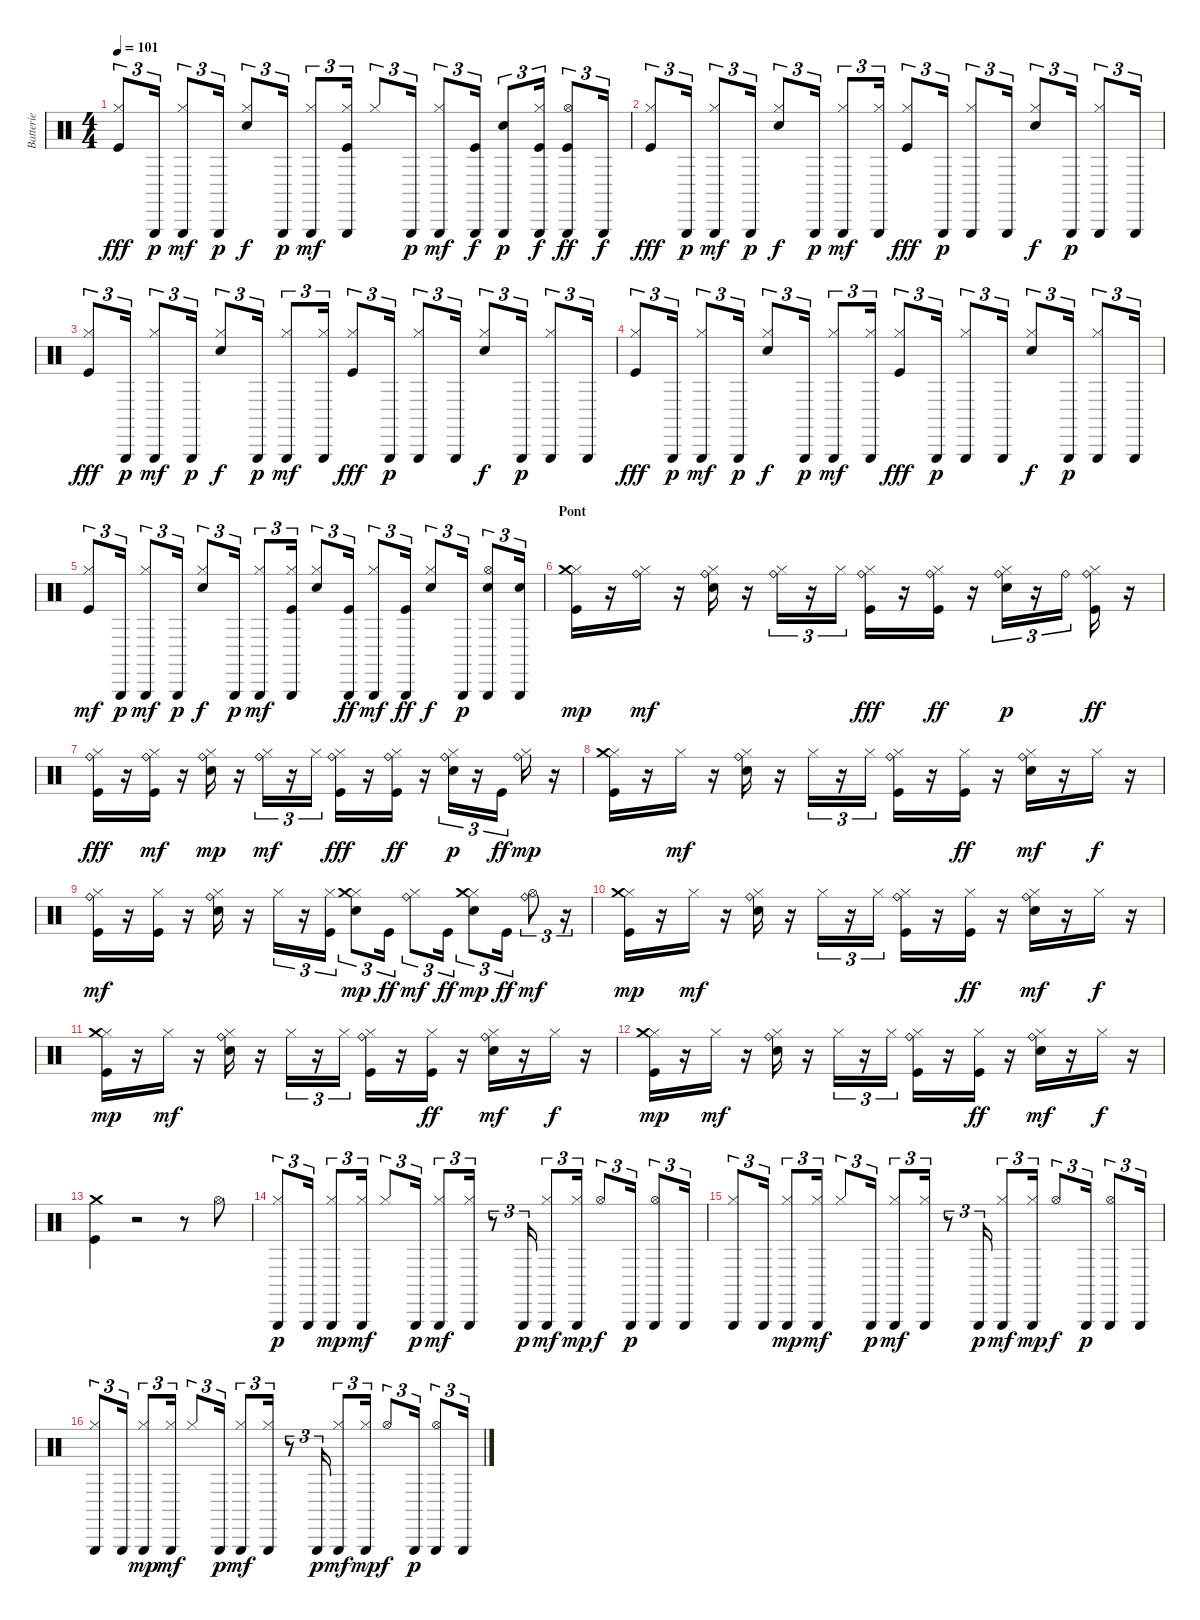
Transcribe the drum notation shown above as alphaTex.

\track ("Batterie" "Batterie") {instrument percussion}
\staff {score}
\articulation defaults
\ts (4 4)
\tempo 101
\clef neutral
\ks c
("Kick (hit)" "Hi-Hat (closed)").8{tu (3 2) dy fff} "Triangle (hit)".16{tu (3 2) dy p} ("Triangle (hit)" "Hi-Hat (closed)").8{tu (3 2) dy mf} "Triangle (hit)".16{tu (3 2) dy p} ("Electric Snare (hit)" "Hi-Hat (closed)").8{tu (3 2) dy f} "Triangle (hit)".16{tu (3 2) dy p} ("Triangle (hit)" "Hi-Hat (closed)").8{tu (3 2) dy mf} ("Triangle (hit)" "Kick (hit)" "Hi-Hat (closed)").16{tu (3 2)} "Hi-Hat (closed)".8{tu (3 2)} "Triangle (hit)".16{tu (3 2) dy p} ("Triangle (hit)" "Hi-Hat (closed)").8{tu (3 2) dy mf} ("Triangle (hit)" "Kick (hit)").16{tu (3 2) dy f} ("Triangle (hit)" "Electric Snare (hit)").8{tu (3 2) dy p} ("Triangle (hit)" "Hi-Hat (closed)" "Kick (hit)").16{tu (3 2) dy f} ("Triangle (hit)" "Kick (hit)" "Hi-Hat (open)").8{tu (3 2) dy ff} "Triangle (hit)".16{tu (3 2) dy f} |
("Kick (hit)" "Hi-Hat (closed)").8{tu (3 2) dy fff} "Triangle (hit)".16{tu (3 2) dy p} ("Triangle (hit)" "Hi-Hat (closed)").8{tu (3 2) dy mf} "Triangle (hit)".16{tu (3 2) dy p} ("Electric Snare (hit)" "Hi-Hat (closed)").8{tu (3 2) dy f} "Triangle (hit)".16{tu (3 2) dy p} ("Triangle (hit)" "Hi-Hat (closed)").8{tu (3 2) dy mf} ("Triangle (hit)" "Hi-Hat (closed)").16{tu (3 2)} ("Kick (hit)" "Hi-Hat (closed)").8{tu (3 2) dy fff} "Triangle (hit)".16{tu (3 2) dy p} ("Triangle (hit)" "Hi-Hat (closed)").8{tu (3 2)} "Triangle (hit)".16{tu (3 2)} ("Electric Snare (hit)" "Hi-Hat (closed)").8{tu (3 2) dy f} "Triangle (hit)".16{tu (3 2) dy p} ("Triangle (hit)" "Hi-Hat (closed)").8{tu (3 2)} "Triangle (hit)".16{tu (3 2)} |
("Kick (hit)" "Hi-Hat (closed)").8{tu (3 2) dy fff} "Triangle (hit)".16{tu (3 2) dy p} ("Triangle (hit)" "Hi-Hat (closed)").8{tu (3 2) dy mf} "Triangle (hit)".16{tu (3 2) dy p} ("Electric Snare (hit)" "Hi-Hat (closed)").8{tu (3 2) dy f} "Triangle (hit)".16{tu (3 2) dy p} ("Triangle (hit)" "Hi-Hat (closed)").8{tu (3 2) dy mf} ("Triangle (hit)" "Hi-Hat (closed)").16{tu (3 2)} ("Kick (hit)" "Hi-Hat (closed)").8{tu (3 2) dy fff} "Triangle (hit)".16{tu (3 2) dy p} ("Triangle (hit)" "Hi-Hat (closed)").8{tu (3 2)} "Triangle (hit)".16{tu (3 2)} ("Electric Snare (hit)" "Hi-Hat (closed)").8{tu (3 2) dy f} "Triangle (hit)".16{tu (3 2) dy p} ("Triangle (hit)" "Hi-Hat (closed)").8{tu (3 2)} "Triangle (hit)".16{tu (3 2)} |
("Kick (hit)" "Hi-Hat (closed)").8{tu (3 2) dy fff} "Triangle (hit)".16{tu (3 2) dy p} ("Triangle (hit)" "Hi-Hat (closed)").8{tu (3 2) dy mf} "Triangle (hit)".16{tu (3 2) dy p} ("Electric Snare (hit)" "Hi-Hat (closed)").8{tu (3 2) dy f} "Triangle (hit)".16{tu (3 2) dy p} ("Triangle (hit)" "Hi-Hat (closed)").8{tu (3 2) dy mf} ("Triangle (hit)" "Hi-Hat (closed)").16{tu (3 2)} ("Kick (hit)" "Hi-Hat (closed)").8{tu (3 2) dy fff} "Triangle (hit)".16{tu (3 2) dy p} ("Triangle (hit)" "Hi-Hat (closed)").8{tu (3 2)} "Triangle (hit)".16{tu (3 2)} ("Electric Snare (hit)" "Hi-Hat (closed)").8{tu (3 2) dy f} "Triangle (hit)".16{tu (3 2) dy p} ("Triangle (hit)" "Hi-Hat (closed)").8{tu (3 2)} "Triangle (hit)".16{tu (3 2)} |
("Kick (hit)" "Hi-Hat (closed)").8{tu (3 2) dy mf} "Triangle (hit)".16{tu (3 2) dy p} ("Triangle (hit)" "Hi-Hat (closed)").8{tu (3 2) dy mf} "Triangle (hit)".16{tu (3 2) dy p} ("Electric Snare (hit)" "Hi-Hat (closed)").8{tu (3 2) dy f} "Triangle (hit)".16{tu (3 2) dy p} ("Triangle (hit)" "Hi-Hat (closed)").8{tu (3 2) dy mf} ("Triangle (hit)" "Kick (hit)" "Hi-Hat (closed)").16{tu (3 2)} ("Electric Snare (hit)" "Hi-Hat (closed)").8{tu (3 2)} ("Triangle (hit)" "Kick (hit)").16{tu (3 2) dy ff} ("Triangle (hit)" "Hi-Hat (closed)").8{tu (3 2) dy mf} ("Triangle (hit)" "Kick (hit)").16{tu (3 2) dy ff} ("Electric Snare (hit)" "Hi-Hat (closed)").8{tu (3 2) dy f} "Triangle (hit)".16{tu (3 2) dy p} ("Electric Snare (hit)" "Hi-Hat (open)" "Triangle (hit)").8{tu (3 2)} ("Electric Snare (hit)" "Triangle (hit)").16{tu (3 2)} |
\section ("" "Pont")
("Kick (hit)" "Hi-Hat (closed)" "Crash medium (hit)").16{dy mp} r.16 ("Ride (bell)" "Hi-Hat (closed)").16{dy mf} r.16 ("Electric Snare (hit)" "Ride (bell)" "Hi-Hat (closed)").16 r.16 ("Ride (bell)" "Hi-Hat (closed)").16{tu (3 2)} r.16{tu (3 2)} "Hi-Hat (closed)".16{tu (3 2)} ("Ride (bell)" "Kick (hit)" "Hi-Hat (closed)").16{dy fff} r.16 ("Ride (bell)" "Kick (hit)" "Hi-Hat (closed)").16{dy ff} r.16 ("Electric Snare (hit)" "Ride (bell)" "Hi-Hat (closed)").16{tu (3 2) dy p} r.16{tu (3 2)} "Ride (bell)".16{tu (3 2)} ("Ride (bell)" "Kick (hit)" "Hi-Hat (closed)").16{dy ff} r.16 |
("Ride (bell)" "Kick (hit)" "Hi-Hat (closed)").16{dy fff} r.16 ("Ride (bell)" "Kick (hit)" "Hi-Hat (closed)").16{dy mf} r.16 ("Electric Snare (hit)" "Ride (bell)" "Hi-Hat (closed)").16{dy mp} r.16 ("Ride (bell)" "Hi-Hat (closed)").16{tu (3 2) dy mf} r.16{tu (3 2)} "Hi-Hat (closed)".16{tu (3 2)} ("Ride (bell)" "Kick (hit)" "Hi-Hat (closed)").16{dy fff} r.16 ("Ride (bell)" "Kick (hit)" "Hi-Hat (closed)").16{dy ff} r.16 ("Electric Snare (hit)" "Ride (bell)" "Hi-Hat (closed)").16{tu (3 2) dy p} r.16{tu (3 2)} "Kick (hit)".16{tu (3 2) dy ff} ("Ride (bell)" "Hi-Hat (closed)").16{dy mp} r.16 |
("Kick (hit)" "Hi-Hat (closed)" "Crash medium (hit)").16 r.16 "Hi-Hat (closed)".16{dy mf} r.16 ("Electric Snare (hit)" "Ride (bell)" "Hi-Hat (closed)").16 r.16 "Hi-Hat (closed)".16{tu (3 2)} r.16{tu (3 2)} "Hi-Hat (closed)".16{tu (3 2)} ("Ride (bell)" "Kick (hit)" "Hi-Hat (closed)").16 r.16 ("Kick (hit)" "Hi-Hat (closed)").16{dy ff} r.16 ("Electric Snare (hit)" "Ride (bell)" "Hi-Hat (closed)").16{dy mf} r.16 "Hi-Hat (closed)".16{dy f} r.16 |
("Ride (bell)" "Kick (hit)" "Hi-Hat (closed)").16{dy mf} r.16 ("Kick (hit)" "Hi-Hat (closed)").16 r.16 ("Electric Snare (hit)" "Ride (bell)" "Hi-Hat (closed)").16 r.16 "Hi-Hat (closed)".16{tu (3 2)} r.16{tu (3 2)} ("Kick (hit)" "Hi-Hat (closed)").16{tu (3 2)} ("Electric Snare (hit)" "Hi-Hat (closed)" "Crash medium (hit)").8{tu (3 2) dy mp} "Kick (hit)".16{tu (3 2) dy ff} ("Ride (bell)" "Hi-Hat (closed)").8{tu (3 2) dy mf} "Kick (hit)".16{tu (3 2) dy ff} ("Electric Snare (hit)" "Hi-Hat (closed)" "Crash medium (hit)").8{tu (3 2) dy mp} "Kick (hit)".16{tu (3 2) dy ff} ("Hi-Hat (open)" "Ride (bell)").8{tu (3 2) dy mf} r.16{tu (3 2)} |
("Kick (hit)" "Hi-Hat (closed)" "Crash medium (hit)").16{dy mp} r.16 "Hi-Hat (closed)".16{dy mf} r.16 ("Electric Snare (hit)" "Ride (bell)" "Hi-Hat (closed)").16 r.16 "Hi-Hat (closed)".16{tu (3 2)} r.16{tu (3 2)} "Hi-Hat (closed)".16{tu (3 2)} ("Ride (bell)" "Kick (hit)" "Hi-Hat (closed)").16 r.16 ("Kick (hit)" "Hi-Hat (closed)").16{dy ff} r.16 ("Electric Snare (hit)" "Ride (bell)" "Hi-Hat (closed)").16{dy mf} r.16 "Hi-Hat (closed)".16{dy f} r.16 |
("Kick (hit)" "Hi-Hat (closed)" "Crash medium (hit)").16{dy mp} r.16 "Hi-Hat (closed)".16{dy mf} r.16 ("Electric Snare (hit)" "Ride (bell)" "Hi-Hat (closed)").16 r.16 "Hi-Hat (closed)".16{tu (3 2)} r.16{tu (3 2)} "Hi-Hat (closed)".16{tu (3 2)} ("Ride (bell)" "Kick (hit)" "Hi-Hat (closed)").16 r.16 ("Kick (hit)" "Hi-Hat (closed)").16{dy ff} r.16 ("Electric Snare (hit)" "Ride (bell)" "Hi-Hat (closed)").16{dy mf} r.16 "Hi-Hat (closed)".16{dy f} r.16 |
("Kick (hit)" "Hi-Hat (closed)" "Crash medium (hit)").16{dy mp} r.16 "Hi-Hat (closed)".16{dy mf} r.16 ("Electric Snare (hit)" "Ride (bell)" "Hi-Hat (closed)").16 r.16 "Hi-Hat (closed)".16{tu (3 2)} r.16{tu (3 2)} "Hi-Hat (closed)".16{tu (3 2)} ("Ride (bell)" "Kick (hit)" "Hi-Hat (closed)").16 r.16 ("Kick (hit)" "Hi-Hat (closed)").16{dy ff} r.16 ("Electric Snare (hit)" "Ride (bell)" "Hi-Hat (closed)").16{dy mf} r.16 "Hi-Hat (closed)".16{dy f} r.16 |
("Crash medium (hit)" "Kick (hit)").4 r.2 r.8 "Hi-Hat (open)".8 |
("Triangle (hit)" "Hi-Hat (closed)").8{tu (3 2) dy p} "Triangle (hit)".16{tu (3 2)} ("Triangle (hit)" "Hi-Hat (closed)").8{tu (3 2) dy mp} ("Triangle (hit)" "Hi-Hat (closed)").16{tu (3 2) dy mf} "Hi-Hat (closed)".8{tu (3 2)} "Triangle (hit)".16{tu (3 2) dy p} ("Triangle (hit)" "Hi-Hat (closed)").8{tu (3 2) dy mf} ("Triangle (hit)" "Hi-Hat (closed)").16{tu (3 2)} r.8{tu (3 2)} "Triangle (hit)".16{tu (3 2) dy p} ("Triangle (hit)" "Hi-Hat (closed)").8{tu (3 2) dy mf} ("Triangle (hit)" "Hi-Hat (closed)").16{tu (3 2) dy mp} "Hi-Hat (open)".8{tu (3 2) dy f} "Triangle (hit)".16{tu (3 2) dy p} ("Hi-Hat (open)" "Triangle (hit)").8{tu (3 2)} "Triangle (hit)".16{tu (3 2)} |
("Triangle (hit)" "Hi-Hat (closed)").8{tu (3 2)} "Triangle (hit)".16{tu (3 2)} ("Triangle (hit)" "Hi-Hat (closed)").8{tu (3 2) dy mp} ("Triangle (hit)" "Hi-Hat (closed)").16{tu (3 2) dy mf} "Hi-Hat (closed)".8{tu (3 2)} "Triangle (hit)".16{tu (3 2) dy p} ("Triangle (hit)" "Hi-Hat (closed)").8{tu (3 2) dy mf} ("Triangle (hit)" "Hi-Hat (closed)").16{tu (3 2)} r.8{tu (3 2)} "Triangle (hit)".16{tu (3 2) dy p} ("Triangle (hit)" "Hi-Hat (closed)").8{tu (3 2) dy mf} ("Triangle (hit)" "Hi-Hat (closed)").16{tu (3 2) dy mp} "Hi-Hat (open)".8{tu (3 2) dy f} "Triangle (hit)".16{tu (3 2) dy p} ("Hi-Hat (open)" "Triangle (hit)").8{tu (3 2)} "Triangle (hit)".16{tu (3 2)} |
("Triangle (hit)" "Hi-Hat (closed)").8{tu (3 2)} "Triangle (hit)".16{tu (3 2)} ("Triangle (hit)" "Hi-Hat (closed)").8{tu (3 2) dy mp} ("Triangle (hit)" "Hi-Hat (closed)").16{tu (3 2) dy mf} "Hi-Hat (closed)".8{tu (3 2)} "Triangle (hit)".16{tu (3 2) dy p} ("Triangle (hit)" "Hi-Hat (closed)").8{tu (3 2) dy mf} ("Triangle (hit)" "Hi-Hat (closed)").16{tu (3 2)} r.8{tu (3 2)} "Triangle (hit)".16{tu (3 2) dy p} ("Triangle (hit)" "Hi-Hat (closed)").8{tu (3 2) dy mf} ("Triangle (hit)" "Hi-Hat (closed)").16{tu (3 2) dy mp} "Hi-Hat (open)".8{tu (3 2) dy f} "Triangle (hit)".16{tu (3 2) dy p} ("Hi-Hat (open)" "Triangle (hit)").8{tu (3 2)} "Triangle (hit)".16{tu (3 2)}
